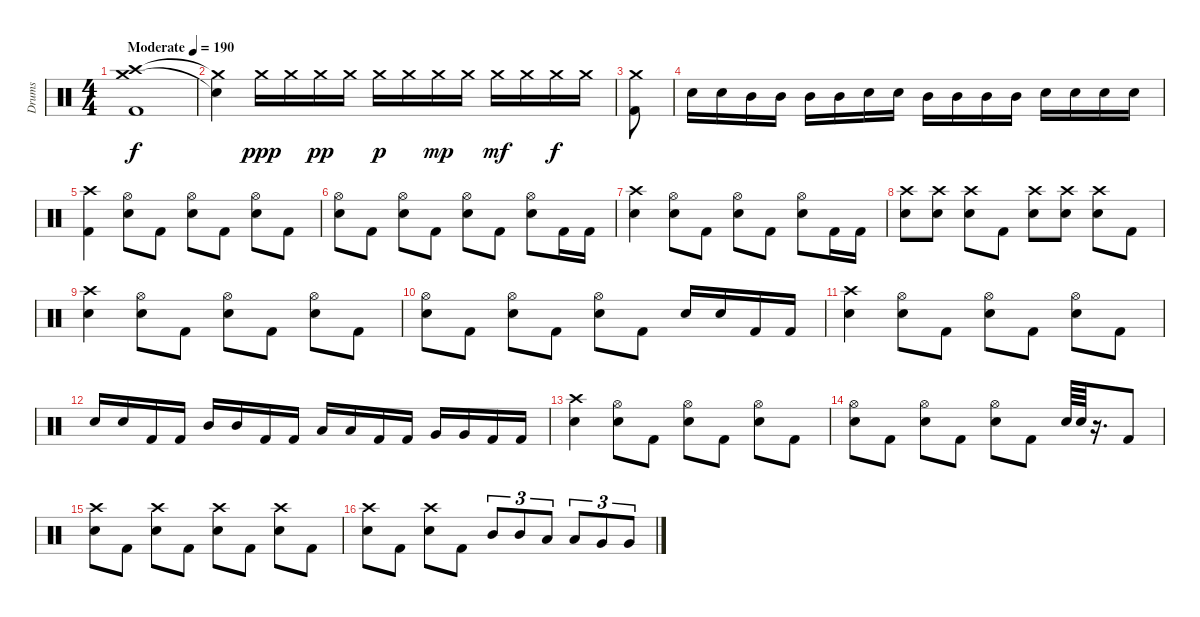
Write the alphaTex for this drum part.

\track ("Drums" "Drums") {instrument percussion}
\staff {score}
\articulation defaults
\ts (4 4)
\tempo (190 "Moderate")
\clef neutral
\ks c
("Crash medium (hit)" "Crash high (hit)" "Kick (hit) 2").1{dy f} |
("Snare (hit)"{t} "Crash medium (hit)"{t}).4 "Crash medium (hit)".16{dy ppp} "Crash medium (hit)".16 "Crash medium (hit)".16{dy pp} "Crash medium (hit)".16 "Crash medium (hit)".16{dy p} "Crash medium (hit)".16 "Crash medium (hit)".16{dy mp} "Crash medium (hit)".16 "Crash medium (hit)".16{dy mf} "Crash medium (hit)".16 "Crash medium (hit)".16{dy f} "Crash medium (hit)".16 |
("Crash medium (hit)" "Kick (hit) 2").8 |
"Electric Snare (hit)".16 "Electric Snare (hit)".16 "Mid Tom (hit)".16 "Mid Tom (hit)".16 "Mid Tom (hit)".16 "Mid Tom (hit)".16 "Electric Snare (hit)".16 "Electric Snare (hit)".16 "Mid Tom (hit)".16 "Mid Tom (hit)".16 "Mid Tom (hit)".16 "Mid Tom (hit)".16 "Electric Snare (hit)".16 "Electric Snare (hit)".16 "Electric Snare (hit)".16 "Electric Snare (hit)".16 |
("Crash high (hit)" "Kick (hit) 2").4 ("Hi-Hat (open)" "Electric Snare (hit)").8 "Kick (hit) 2".8 ("Hi-Hat (open)" "Electric Snare (hit)").8 "Kick (hit) 2".8 ("Hi-Hat (open)" "Electric Snare (hit)").8 "Kick (hit) 2".8 |
("Hi-Hat (open)" "Electric Snare (hit)").8 "Kick (hit) 2".8 ("Hi-Hat (open)" "Electric Snare (hit)").8 "Kick (hit) 2".8 ("Hi-Hat (open)" "Electric Snare (hit)").8 "Kick (hit) 2".8 ("Hi-Hat (open)" "Electric Snare (hit)").8 "Kick (hit) 2".16 "Kick (hit) 2".16 |
("Crash high (hit)" "Electric Snare (hit)").4 ("Hi-Hat (open)" "Electric Snare (hit)").8 "Kick (hit) 2".8 ("Hi-Hat (open)" "Electric Snare (hit)").8 "Kick (hit) 2".8 ("Hi-Hat (open)" "Electric Snare (hit)").8 "Kick (hit) 2".16 "Kick (hit) 2".16 |
("Crash high (hit)" "Electric Snare (hit)").8 ("Crash high (hit)" "Electric Snare (hit)").8 ("Crash high (hit)" "Electric Snare (hit)").8 "Kick (hit) 2".8 ("Crash high (hit)" "Electric Snare (hit)").8 ("Crash high (hit)" "Electric Snare (hit)").8 ("Crash high (hit)" "Electric Snare (hit)").8 "Kick (hit) 2".8 |
("Crash high (hit)" "Electric Snare (hit)").4 ("Hi-Hat (open)" "Electric Snare (hit)").8 "Kick (hit) 2".8 ("Hi-Hat (open)" "Electric Snare (hit)").8 "Kick (hit) 2".8 ("Hi-Hat (open)" "Electric Snare (hit)").8 "Kick (hit) 2".8 |
("Hi-Hat (open)" "Electric Snare (hit)").8 "Kick (hit) 2".8 ("Hi-Hat (open)" "Electric Snare (hit)").8 "Kick (hit) 2".8 ("Hi-Hat (open)" "Electric Snare (hit)").8 "Kick (hit) 2".8 "Electric Snare (hit)".16 "Electric Snare (hit)".16 "Kick (hit) 2".16 "Kick (hit) 2".16 |
("Crash high (hit)" "Electric Snare (hit)").4 ("Hi-Hat (open)" "Electric Snare (hit)").8 "Kick (hit) 2".8 ("Hi-Hat (open)" "Electric Snare (hit)").8 "Kick (hit) 2".8 ("Hi-Hat (open)" "Electric Snare (hit)").8 "Kick (hit) 2".8 |
"Electric Snare (hit)".16 "Electric Snare (hit)".16 "Kick (hit) 2".16 "Kick (hit) 2".16 "Mid Tom (hit)".16 "Mid Tom (hit)".16 "Kick (hit) 2".16 "Kick (hit) 2".16 "Low Tom (hit)".16 "Low Tom (hit)".16 "Kick (hit) 2".16 "Kick (hit) 2".16 "Very Low Tom (hit)".16 "Very Low Tom (hit)".16 "Kick (hit) 2".16 "Kick (hit) 2".16 |
("Crash high (hit)" "Electric Snare (hit)").4 ("Hi-Hat (open)" "Electric Snare (hit)").8 "Kick (hit) 2".8 ("Hi-Hat (open)" "Electric Snare (hit)").8 "Kick (hit) 2".8 ("Hi-Hat (open)" "Electric Snare (hit)").8 "Kick (hit) 2".8 |
("Hi-Hat (open)" "Electric Snare (hit)").8 "Kick (hit) 2".8 ("Hi-Hat (open)" "Electric Snare (hit)").8 "Kick (hit) 2".8 ("Hi-Hat (open)" "Electric Snare (hit)").8 "Kick (hit) 2".8 "Electric Snare (hit)".64 "Electric Snare (hit)".64 r.16{d} "Kick (hit) 2".8 |
("Crash high (hit)" "Electric Snare (hit)").8 "Kick (hit) 2".8 ("Crash high (hit)" "Electric Snare (hit)").8 "Kick (hit) 2".8 ("Crash high (hit)" "Electric Snare (hit)").8 "Kick (hit) 2".8 ("Crash high (hit)" "Electric Snare (hit)").8 "Kick (hit) 2".8 |
("Crash high (hit)" "Electric Snare (hit)").8 "Kick (hit) 2".8 ("Crash high (hit)" "Electric Snare (hit)").8 "Kick (hit) 2".8 "Mid Tom (hit)".8{tu (3 2)} "Mid Tom (hit)".8{tu (3 2)} "Low Tom (hit)".8{tu (3 2)} "Low Tom (hit)".8{tu (3 2)} "Very Low Tom (hit)".8{tu (3 2)} "Very Low Tom (hit)".8{tu (3 2)}
